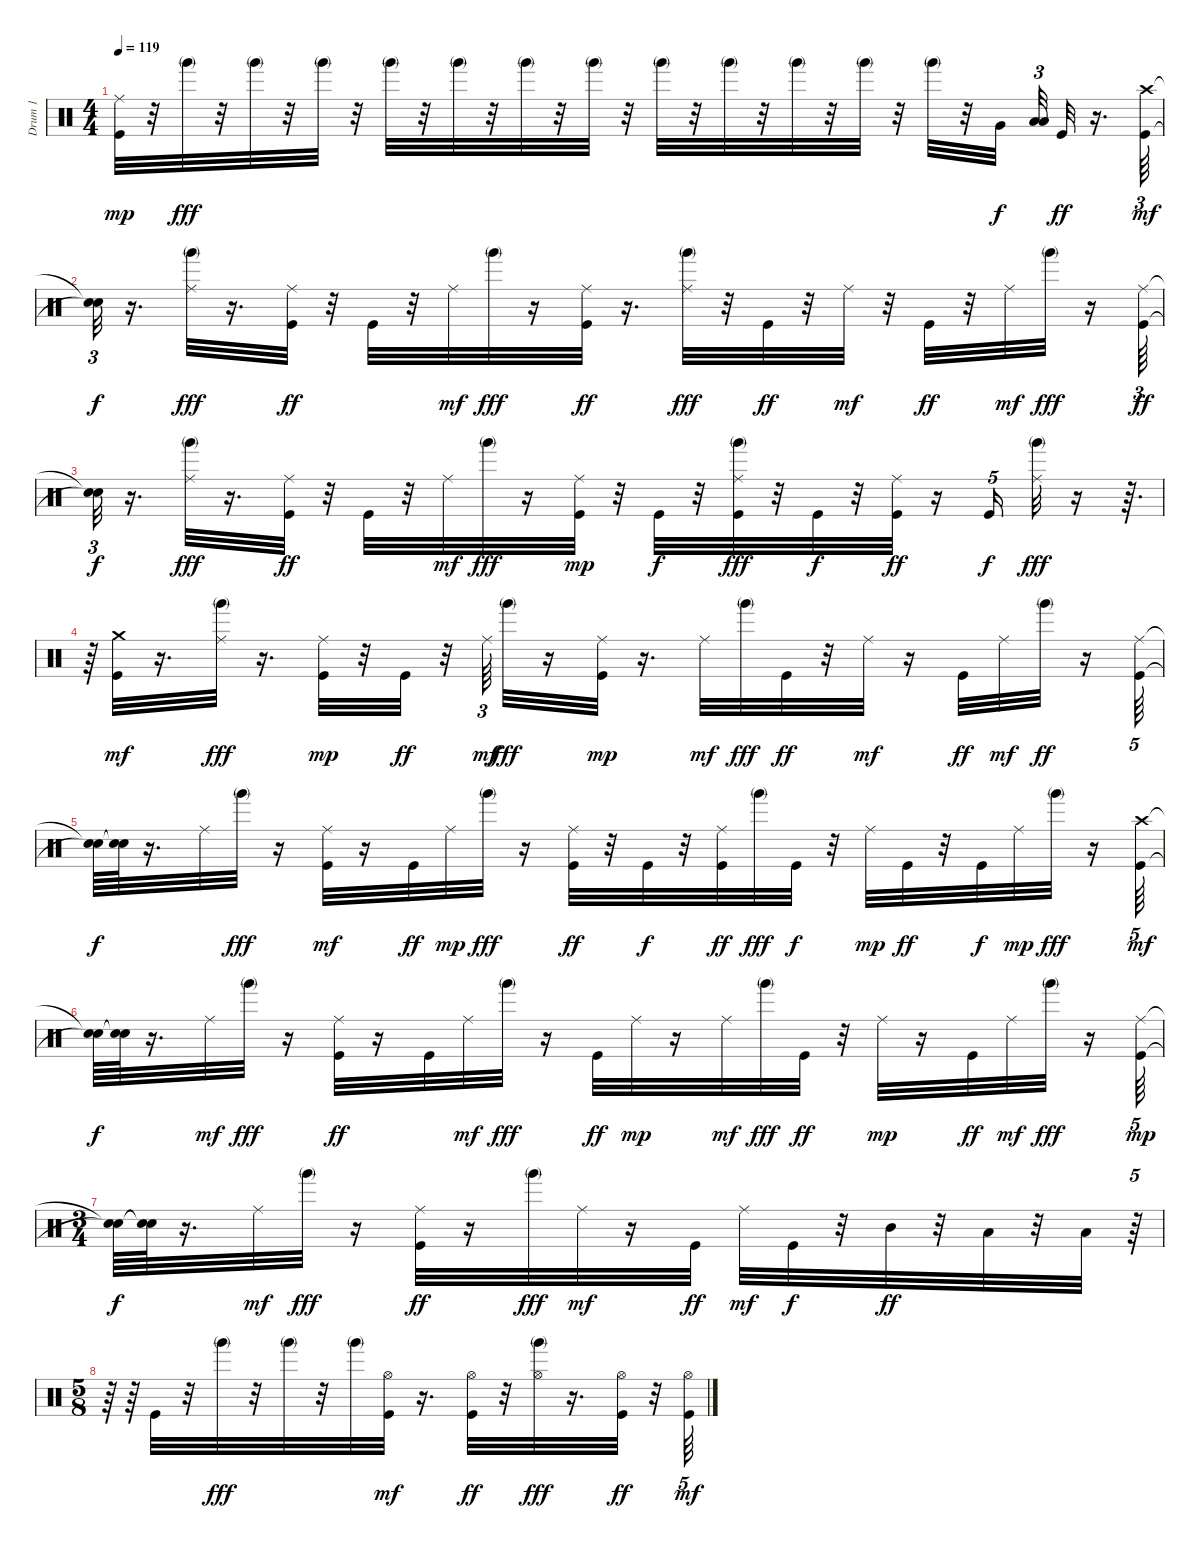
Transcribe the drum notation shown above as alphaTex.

\track ("Drum 1                          " "Drum 1    ") {instrument percussion}
\staff {score}
\articulation defaults
\ts (4 4)
\tempo 119
\clef neutral
\ks c
("Kick (hit)" "Ride (middle)").32{dy mp} r.32 "Hand (mute) 2".32{dy fff} r.32 "Hand (mute) 2".32 r.32 "Hand (mute) 2".32 r.32 "Hand (mute) 2".32 r.32 "Hand (mute) 2".32 r.32 "Hand (mute) 2".32 r.32 "Hand (mute) 2".32 r.32 "Hand (mute) 2".32 r.32 "Hand (mute) 2".32 r.32 "Hand (mute) 2".32 r.32 "Hand (mute) 2".32 r.32 "Hand (mute) 2".32 r.32 "Very Low Tom (hit)".32{dy f} ("Low Tom (hit)" "Low Floor Tom (hit)").32{tu (3 2)} "Kick (hit)".32{dy ff} r.16{d} ("Kick (hit)" "Crash high (hit)").64{tu (3 2) dy mf} |
("Snare (hit)"{t} "Snare (hit)"{t}).32{tu (3 2) dy f} r.16{d} ("Ride (middle)" "Hand (mute) 2").32{dy fff} r.16{d} ("Ride (middle)" "Kick (hit)").32{dy ff} r.32 "Kick (hit)".32 r.32 "Ride (middle)".32{dy mf} "Hand (mute) 2".32{dy fff} r.16 ("Ride (middle)" "Kick (hit)").32{dy ff} r.16{d} ("Ride (middle)" "Hand (mute) 2").32{dy fff} r.32 "Kick (hit)".32{dy ff} r.32 "Ride (middle)".32{dy mf} r.32 "Kick (hit)".32{dy ff} r.32 "Ride (middle)".32{dy mf} "Hand (mute) 2".32{dy fff} r.16 ("Ride (middle)" "Kick (hit)").64{tu (3 2) dy ff} |
("Snare (hit)"{t} "Snare (hit)"{t}).32{tu (3 2) dy f} r.16{d} ("Ride (middle)" "Hand (mute) 2").32{dy fff} r.16{d} ("Ride (middle)" "Kick (hit)").32{dy ff} r.32 "Kick (hit)".32 r.32 "Ride (middle)".32{dy mf} "Hand (mute) 2".32{dy fff} r.16 ("Kick (hit)" "Ride (middle)").32{dy mp} r.32 "Kick (hit)".32{dy f} r.32 ("Kick (hit)" "Ride (middle)" "Hand (mute) 2").32{dy fff} r.32 "Kick (hit)".32{dy f} r.32 ("Ride (middle)" "Kick (hit)").32{dy ff} r.16 "Kick (hit)".16{tu (5 4) dy f} ("Ride (middle)" "Hand (mute) 2").32{dy fff} r.16 r.64{d} |
r.64 ("Kick (hit)" "Crash medium (hit)").32{dy mf} r.16{d} ("Ride (middle)" "Hand (mute) 2").32{dy fff} r.16{d} ("Kick (hit)" "Ride (middle)").32{dy mp} r.32 "Kick (hit)".32{dy ff} r.32 "Ride (middle)".64{tu (3 2) dy mf} "Hand (mute) 2".32{dy fff} r.16 ("Kick (hit)" "Ride (middle)").32{dy mp} r.16{d} "Ride (middle)".32{dy mf} "Hand (mute) 2".32{dy fff} "Kick (hit)".32{dy ff} r.32 "Ride (middle)".32{dy mf} r.16 "Kick (hit)".32{dy ff} "Ride (middle)".32{dy mf} "Hand (mute) 2".32{dy ff} r.16 ("Ride (middle)" "Kick (hit)").64{tu (5 4)} |
("Snare (hit)"{t} "Snare (hit)"{t}).64{dy f} ("Snare (hit)"{t} "Snare (hit)"{t}).64 r.16{d} "Ride (middle)".32 "Hand (mute) 2".32{dy fff} r.16 ("Kick (hit)" "Ride (middle)").32{dy mf} r.16 "Kick (hit)".32{dy ff} "Ride (middle)".32{dy mp} "Hand (mute) 2".32{dy fff} r.16 ("Ride (middle)" "Kick (hit)").32{dy ff} r.32 "Kick (hit)".32{dy f} r.32 ("Kick (hit)" "Ride (middle)").32{dy ff} "Hand (mute) 2".32{dy fff} "Kick (hit)".32{dy f} r.32 "Ride (middle)".32{dy mp} "Kick (hit)".32{dy ff} r.32 "Kick (hit)".32{dy f} "Ride (middle)".32{dy mp} "Hand (mute) 2".32{dy fff} r.16 ("Kick (hit)" "Crash high (hit)").64{tu (5 4) dy mf} |
("Snare (hit)"{t} "Snare (hit)"{t}).64{dy f} ("Snare (hit)"{t} "Snare (hit)"{t}).64 r.16{d} "Ride (middle)".32{dy mf} "Hand (mute) 2".32{dy fff} r.16 ("Ride (middle)" "Kick (hit)").32{dy ff} r.16 "Kick (hit)".32 "Ride (middle)".32{dy mf} "Hand (mute) 2".32{dy fff} r.16 "Kick (hit)".32{dy ff} "Ride (middle)".32{dy mp} r.16 "Ride (middle)".32{dy mf} "Hand (mute) 2".32{dy fff} "Kick (hit)".32{dy ff} r.32 "Ride (middle)".32{dy mp} r.16 "Kick (hit)".32{dy ff} "Ride (middle)".32{dy mf} "Hand (mute) 2".32{dy fff} r.16 ("Kick (hit)" "Ride (middle)").64{tu (5 4) dy mp} |
\ts (3 4)
("Snare (hit)"{t} "Snare (hit)"{t}).64{dy f} ("Snare (hit)"{t} "Snare (hit)"{t}).64 r.16{d} "Ride (middle)".32{dy mf} "Hand (mute) 2".32{dy fff} r.16 ("Ride (middle)" "Kick (hit)").32{dy ff} r.16 "Hand (mute) 2".32{dy fff} "Ride (middle)".32{dy mf} r.16 "Kick (hit)".32{dy ff} "Ride (middle)".32{dy mf} "Kick (hit)".32{dy f} r.32 "Mid Tom (hit)".32{dy ff} r.32 "Low Tom (hit)".32 r.32 "Low Floor Tom (hit)".32 r.64{tu (5 4)} |
\ts (5 8)
r.64 r.64 "Kick (hit)".32 r.32 "Hand (mute) 2".32{dy fff} r.32 "Hand (mute) 2".32 r.32 "Hand (mute) 2".32 ("Kick (hit)" "Hi-Hat (open)").32{dy mf} r.16{d} ("Hi-Hat (open)" "Kick (hit)").32{dy ff} r.32 ("Hand (mute) 2" "Hi-Hat (open)").32{dy fff} r.16{d} ("Hi-Hat (open)" "Kick (hit)").32{dy ff} r.32 ("Kick (hit)" "Hi-Hat (open)").64{tu (5 4) dy mf}
